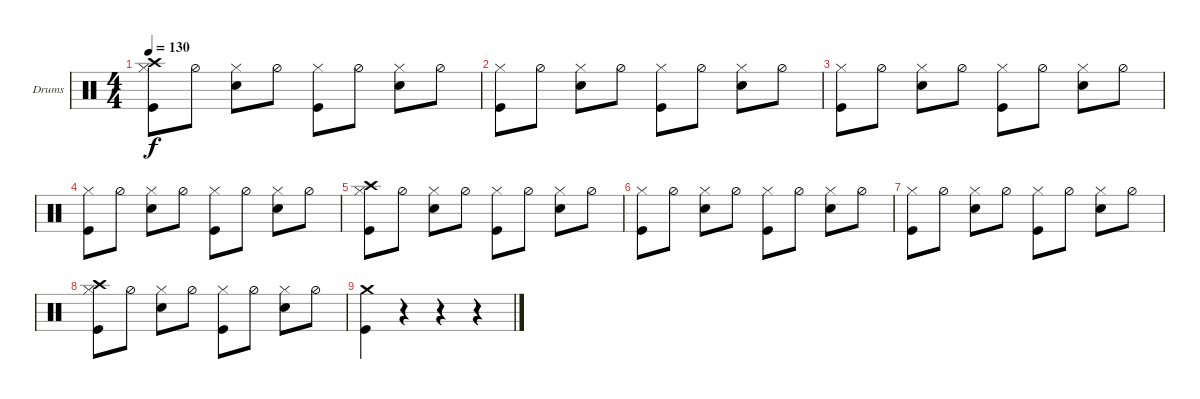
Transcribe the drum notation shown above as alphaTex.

\bracketExtendMode groupsimilarinstruments
\firstSystemTrackNameOrientation horizontal
\otherSystemsTrackNameOrientation horizontal
\track ("Drumkit" "Drums") {instrument percussion}
\staff {score}
\articulation defaults
\ts (4 4)
\tempo 130
\clef neutral
\ks c
("Kick (hit)" "Hi-Hat (closed)" "Crash high (hit)").8{dy f} "Hi-Hat (half)".8 ("Snare (hit) 2" "Hi-Hat (closed)").8 "Hi-Hat (half)".8 ("Kick (hit)" "Hi-Hat (closed)").8 "Hi-Hat (half)".8 ("Snare (hit) 2" "Hi-Hat (closed)").8 "Hi-Hat (half)".8 |
("Kick (hit)" "Hi-Hat (closed)").8 "Hi-Hat (half)".8 ("Snare (hit) 2" "Hi-Hat (closed)").8 "Hi-Hat (half)".8 ("Kick (hit)" "Hi-Hat (closed)").8 "Hi-Hat (half)".8 ("Snare (hit) 2" "Hi-Hat (closed)").8 "Hi-Hat (half)".8 |
("Kick (hit)" "Hi-Hat (closed)").8 "Hi-Hat (half)".8 ("Snare (hit) 2" "Hi-Hat (closed)").8 "Hi-Hat (half)".8 ("Kick (hit)" "Hi-Hat (closed)").8 "Hi-Hat (half)".8 ("Snare (hit) 2" "Hi-Hat (closed)").8 "Hi-Hat (half)".8 |
("Kick (hit)" "Hi-Hat (closed)").8 "Hi-Hat (half)".8 ("Snare (hit) 2" "Hi-Hat (closed)").8 "Hi-Hat (half)".8 ("Kick (hit)" "Hi-Hat (closed)").8 "Hi-Hat (half)".8 ("Snare (hit) 2" "Hi-Hat (closed)").8 "Hi-Hat (half)".8 |
("Kick (hit)" "Hi-Hat (closed)" "Crash high (hit)").8 "Hi-Hat (half)".8 ("Snare (hit) 2" "Hi-Hat (closed)").8 "Hi-Hat (half)".8 ("Kick (hit)" "Hi-Hat (closed)").8 "Hi-Hat (half)".8 ("Snare (hit) 2" "Hi-Hat (closed)").8 "Hi-Hat (half)".8 |
("Kick (hit)" "Hi-Hat (closed)").8 "Hi-Hat (half)".8 ("Snare (hit) 2" "Hi-Hat (closed)").8 "Hi-Hat (half)".8 ("Kick (hit)" "Hi-Hat (closed)").8 "Hi-Hat (half)".8 ("Snare (hit) 2" "Hi-Hat (closed)").8 "Hi-Hat (half)".8 |
("Kick (hit)" "Hi-Hat (closed)").8 "Hi-Hat (half)".8 ("Snare (hit) 2" "Hi-Hat (closed)").8 "Hi-Hat (half)".8 ("Kick (hit)" "Hi-Hat (closed)").8 "Hi-Hat (half)".8 ("Snare (hit) 2" "Hi-Hat (closed)").8 "Hi-Hat (half)".8 |
("Kick (hit)" "Hi-Hat (closed)" "Crash high (hit)").8 "Hi-Hat (half)".8 ("Snare (hit) 2" "Hi-Hat (closed)").8 "Hi-Hat (half)".8 ("Kick (hit)" "Hi-Hat (closed)").8 "Hi-Hat (half)".8 ("Snare (hit) 2" "Hi-Hat (closed)").8 "Hi-Hat (half)".8 |
("Kick (hit)" "Crash medium (hit)").4 r.4 r.4 r.4
